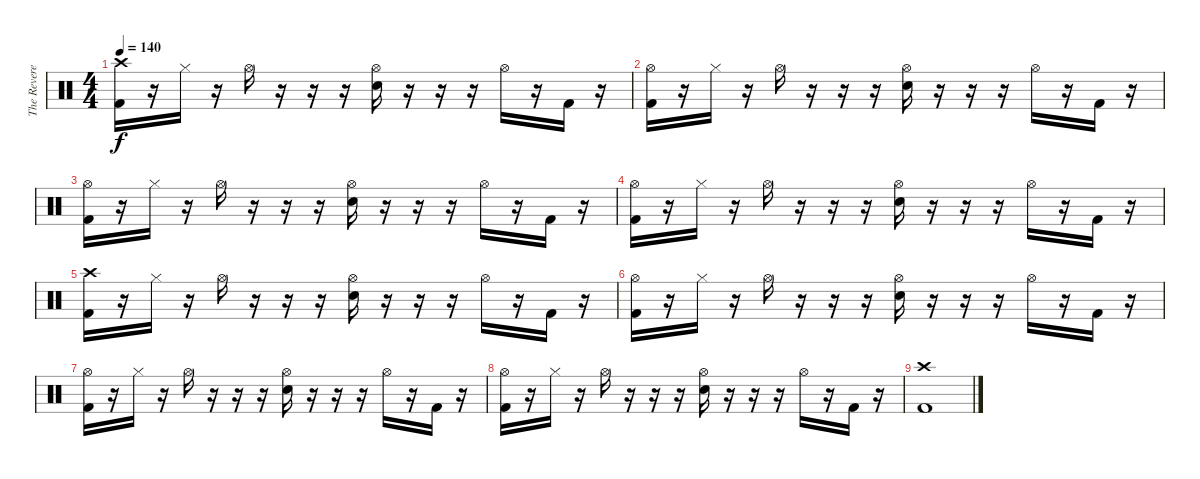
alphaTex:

\track ("The Reverend" "The Revere") {instrument percussion}
\staff {score}
\articulation defaults
\ts (4 4)
\tempo 140
\clef neutral
\ks c
("Crash high (hit)" "Kick (hit) 2").16{dy f} r.16 "Hi-Hat (closed)".16 r.16 "Hi-Hat (open)".16 r.16 r.16 r.16 ("Hi-Hat (open)" "Electric Snare (hit)").16 r.16 r.16 r.16 "Hi-Hat (open)".16 r.16 "Kick (hit) 2".16 r.16 |
("Hi-Hat (open)" "Kick (hit) 2").16 r.16 "Hi-Hat (closed)".16 r.16 "Hi-Hat (open)".16 r.16 r.16 r.16 ("Hi-Hat (open)" "Electric Snare (hit)").16 r.16 r.16 r.16 "Hi-Hat (open)".16 r.16 "Kick (hit) 2".16 r.16 |
("Hi-Hat (open)" "Kick (hit) 2").16 r.16 "Hi-Hat (closed)".16 r.16 "Hi-Hat (open)".16 r.16 r.16 r.16 ("Hi-Hat (open)" "Electric Snare (hit)").16 r.16 r.16 r.16 "Hi-Hat (open)".16 r.16 "Kick (hit) 2".16 r.16 |
("Hi-Hat (open)" "Kick (hit) 2").16 r.16 "Hi-Hat (closed)".16 r.16 "Hi-Hat (open)".16 r.16 r.16 r.16 ("Hi-Hat (open)" "Electric Snare (hit)").16 r.16 r.16 r.16 "Hi-Hat (open)".16 r.16 "Kick (hit) 2".16 r.16 |
("Crash high (hit)" "Kick (hit) 2").16 r.16 "Hi-Hat (closed)".16 r.16 "Hi-Hat (open)".16 r.16 r.16 r.16 ("Hi-Hat (open)" "Electric Snare (hit)").16 r.16 r.16 r.16 "Hi-Hat (open)".16 r.16 "Kick (hit) 2".16 r.16 |
("Hi-Hat (open)" "Kick (hit) 2").16 r.16 "Hi-Hat (closed)".16 r.16 "Hi-Hat (open)".16 r.16 r.16 r.16 ("Hi-Hat (open)" "Electric Snare (hit)").16 r.16 r.16 r.16 "Hi-Hat (open)".16 r.16 "Kick (hit) 2".16 r.16 |
("Hi-Hat (open)" "Kick (hit) 2").16 r.16 "Hi-Hat (closed)".16 r.16 "Hi-Hat (open)".16 r.16 r.16 r.16 ("Hi-Hat (open)" "Electric Snare (hit)").16 r.16 r.16 r.16 "Hi-Hat (open)".16 r.16 "Kick (hit) 2".16 r.16 |
("Hi-Hat (open)" "Kick (hit) 2").16 r.16 "Hi-Hat (closed)".16 r.16 "Hi-Hat (open)".16 r.16 r.16 r.16 ("Hi-Hat (open)" "Electric Snare (hit)").16 r.16 r.16 r.16 "Hi-Hat (open)".16 r.16 "Kick (hit) 2".16 r.16 |
("Crash high (hit)" "Kick (hit) 2").1
